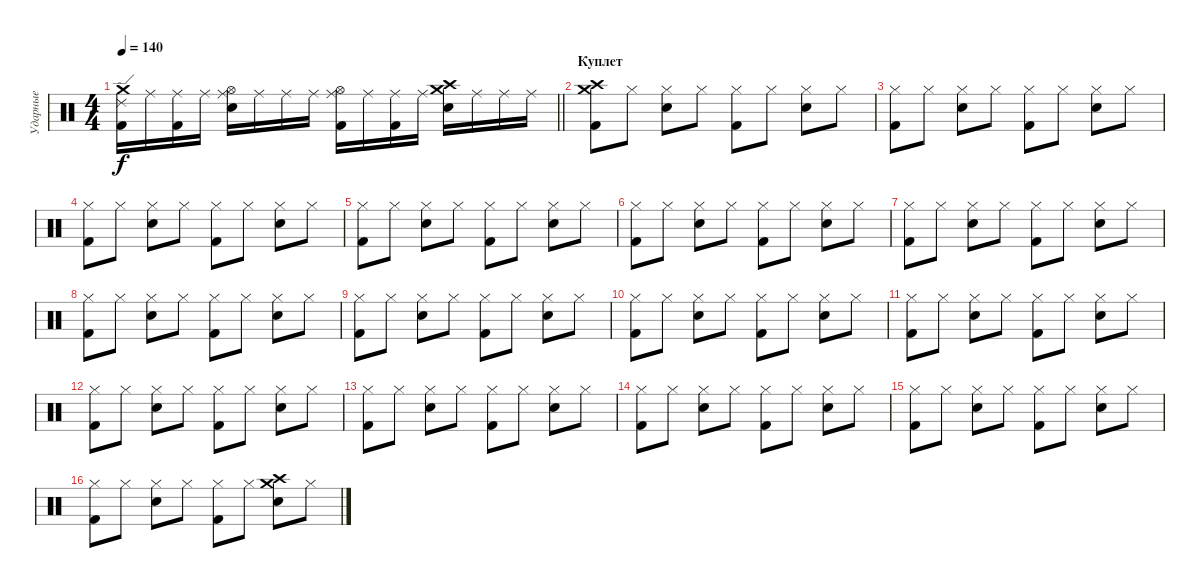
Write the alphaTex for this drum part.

\track ("Ударные" "Ударные") {instrument percussion}
\staff {score}
\articulation defaults
\ts (4 4)
\tempo 140
\clef neutral
\barLineRight lightlight
\ks c
("Crash medium (hit)" "Ride (edge) 2" "Kick (hit) 2").16{dy f} "Ride (middle)".16 ("Ride (middle)" "Kick (hit) 2").16 "Ride (middle)".16 ("Ride (middle)" "Hi-Hat (open)" "Snare (hit) 2").16 "Ride (middle)".16 "Ride (middle)".16 "Ride (middle)".16 ("Ride (middle)" "Hi-Hat (open)" "Kick (hit) 2").16 "Ride (middle)".16 ("Ride (middle)" "Kick (hit) 2").16 "Ride (middle)".16 ("Crash high (hit)" "Crash medium (hit)" "Snare (hit) 2").16 "Ride (middle)".16 "Ride (middle)".16 "Ride (middle)".16 |
\section ("" "Куплет")
("Crash medium (hit)" "Crash high (hit)" "Kick (hit) 2").8 "Hi-Hat (closed)".8 ("Hi-Hat (closed)" "Snare (hit) 2").8 "Hi-Hat (closed)".8 ("Hi-Hat (closed)" "Kick (hit) 2").8 "Hi-Hat (closed)".8 ("Hi-Hat (closed)" "Snare (hit) 2").8 "Hi-Hat (closed)".8 |
("Hi-Hat (closed)" "Kick (hit) 2").8 "Hi-Hat (closed)".8 ("Hi-Hat (closed)" "Snare (hit) 2").8 "Hi-Hat (closed)".8 ("Hi-Hat (closed)" "Kick (hit) 2").8 "Hi-Hat (closed)".8 ("Hi-Hat (closed)" "Snare (hit) 2").8 "Hi-Hat (closed)".8 |
("Hi-Hat (closed)" "Kick (hit) 2").8 "Hi-Hat (closed)".8 ("Hi-Hat (closed)" "Snare (hit) 2").8 "Hi-Hat (closed)".8 ("Hi-Hat (closed)" "Kick (hit) 2").8 "Hi-Hat (closed)".8 ("Hi-Hat (closed)" "Snare (hit) 2").8 "Hi-Hat (closed)".8 |
("Hi-Hat (closed)" "Kick (hit) 2").8 "Hi-Hat (closed)".8 ("Hi-Hat (closed)" "Snare (hit) 2").8 "Hi-Hat (closed)".8 ("Hi-Hat (closed)" "Kick (hit) 2").8 "Hi-Hat (closed)".8 ("Hi-Hat (closed)" "Snare (hit) 2").8 "Hi-Hat (closed)".8 |
("Hi-Hat (closed)" "Kick (hit) 2").8 "Hi-Hat (closed)".8 ("Hi-Hat (closed)" "Snare (hit) 2").8 "Hi-Hat (closed)".8 ("Hi-Hat (closed)" "Kick (hit) 2").8 "Hi-Hat (closed)".8 ("Hi-Hat (closed)" "Snare (hit) 2").8 "Hi-Hat (closed)".8 |
("Hi-Hat (closed)" "Kick (hit) 2").8 "Hi-Hat (closed)".8 ("Hi-Hat (closed)" "Snare (hit) 2").8 "Hi-Hat (closed)".8 ("Hi-Hat (closed)" "Kick (hit) 2").8 "Hi-Hat (closed)".8 ("Hi-Hat (closed)" "Snare (hit) 2").8 "Hi-Hat (closed)".8 |
("Hi-Hat (closed)" "Kick (hit) 2").8 "Hi-Hat (closed)".8 ("Hi-Hat (closed)" "Snare (hit) 2").8 "Hi-Hat (closed)".8 ("Hi-Hat (closed)" "Kick (hit) 2").8 "Hi-Hat (closed)".8 ("Hi-Hat (closed)" "Snare (hit) 2").8 "Hi-Hat (closed)".8 |
("Hi-Hat (closed)" "Kick (hit) 2").8 "Hi-Hat (closed)".8 ("Hi-Hat (closed)" "Snare (hit) 2").8 "Hi-Hat (closed)".8 ("Hi-Hat (closed)" "Kick (hit) 2").8 "Hi-Hat (closed)".8 ("Hi-Hat (closed)" "Snare (hit) 2").8 "Hi-Hat (closed)".8 |
("Hi-Hat (closed)" "Kick (hit) 2").8 "Hi-Hat (closed)".8 ("Hi-Hat (closed)" "Snare (hit) 2").8 "Hi-Hat (closed)".8 ("Hi-Hat (closed)" "Kick (hit) 2").8 "Hi-Hat (closed)".8 ("Hi-Hat (closed)" "Snare (hit) 2").8 "Hi-Hat (closed)".8 |
("Hi-Hat (closed)" "Kick (hit) 2").8 "Hi-Hat (closed)".8 ("Hi-Hat (closed)" "Snare (hit) 2").8 "Hi-Hat (closed)".8 ("Hi-Hat (closed)" "Kick (hit) 2").8 "Hi-Hat (closed)".8 ("Hi-Hat (closed)" "Snare (hit) 2").8 "Hi-Hat (closed)".8 |
("Hi-Hat (closed)" "Kick (hit) 2").8 "Hi-Hat (closed)".8 ("Hi-Hat (closed)" "Snare (hit) 2").8 "Hi-Hat (closed)".8 ("Hi-Hat (closed)" "Kick (hit) 2").8 "Hi-Hat (closed)".8 ("Hi-Hat (closed)" "Snare (hit) 2").8 "Hi-Hat (closed)".8 |
("Hi-Hat (closed)" "Kick (hit) 2").8 "Hi-Hat (closed)".8 ("Hi-Hat (closed)" "Snare (hit) 2").8 "Hi-Hat (closed)".8 ("Hi-Hat (closed)" "Kick (hit) 2").8 "Hi-Hat (closed)".8 ("Hi-Hat (closed)" "Snare (hit) 2").8 "Hi-Hat (closed)".8 |
("Hi-Hat (closed)" "Kick (hit) 2").8 "Hi-Hat (closed)".8 ("Hi-Hat (closed)" "Snare (hit) 2").8 "Hi-Hat (closed)".8 ("Hi-Hat (closed)" "Kick (hit) 2").8 "Hi-Hat (closed)".8 ("Hi-Hat (closed)" "Snare (hit) 2").8 "Hi-Hat (closed)".8 |
("Hi-Hat (closed)" "Kick (hit) 2").8 "Hi-Hat (closed)".8 ("Hi-Hat (closed)" "Snare (hit) 2").8 "Hi-Hat (closed)".8 ("Hi-Hat (closed)" "Kick (hit) 2").8 "Hi-Hat (closed)".8 ("Hi-Hat (closed)" "Snare (hit) 2").8 "Hi-Hat (closed)".8 |
("Hi-Hat (closed)" "Kick (hit) 2").8 "Hi-Hat (closed)".8 ("Hi-Hat (closed)" "Snare (hit) 2").8 "Hi-Hat (closed)".8 ("Hi-Hat (closed)" "Kick (hit) 2").8 "Hi-Hat (closed)".8 ("Crash medium (hit)" "Crash high (hit)" "Snare (hit) 2").8 "Hi-Hat (closed)".8
